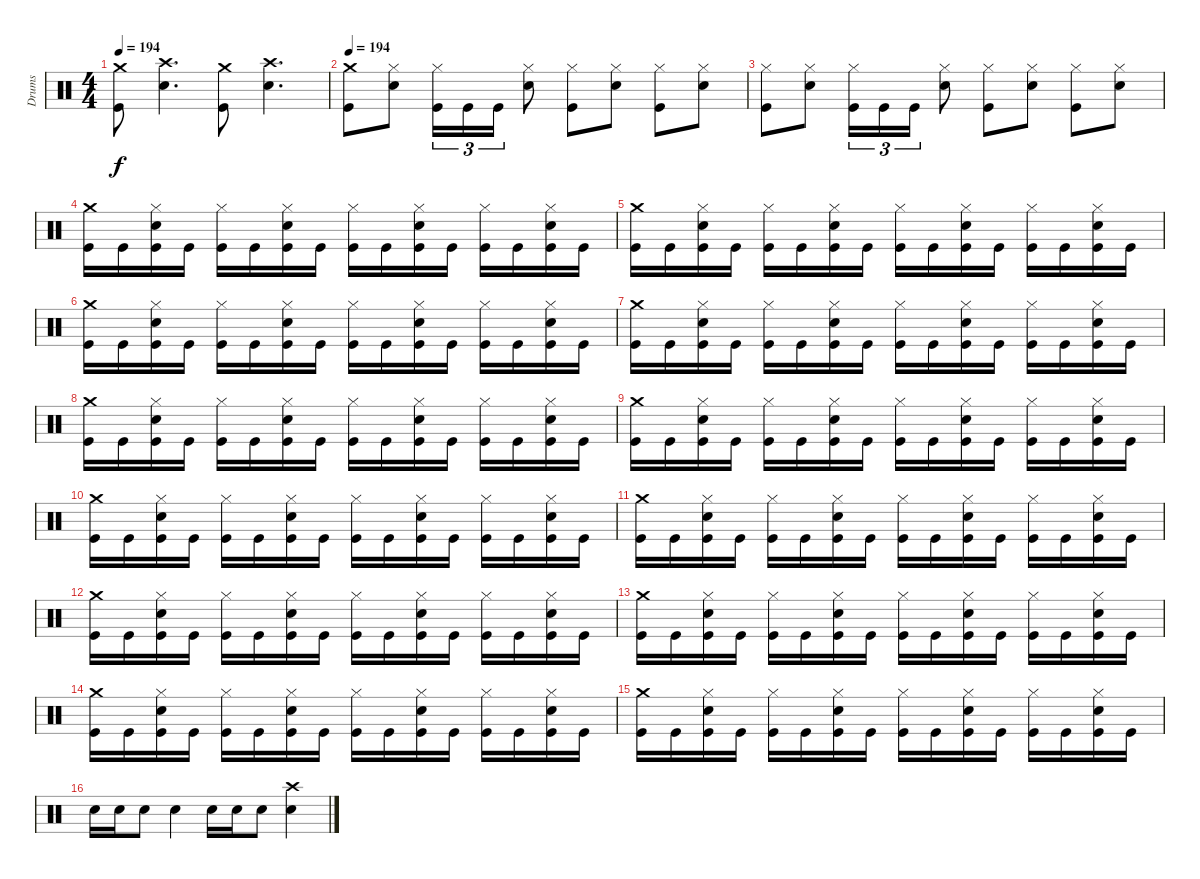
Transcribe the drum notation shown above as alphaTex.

\track ("Drums" "Drums") {instrument percussion}
\staff {score}
\articulation defaults
\ts (4 4)
\tempo 194
\clef neutral
\ks c
("Crash medium (hit)" "Kick (hit)").8{dy f} ("Crash high (hit)" "Snare (hit) 2").4{d} ("Crash medium (hit)" "Kick (hit)").8 ("Crash high (hit)" "Snare (hit) 2").4{d} |
\tempo 194
("Crash medium (hit)" "Kick (hit)").8 ("Hi-Hat (closed)" "Snare (hit) 2").8 ("Hi-Hat (closed)" "Kick (hit)").16{tu (3 2)} "Kick (hit)".16{tu (3 2)} "Kick (hit)".16{tu (3 2)} ("Hi-Hat (closed)" "Snare (hit) 2").8 ("Hi-Hat (closed)" "Kick (hit)").8 ("Hi-Hat (closed)" "Snare (hit) 2").8 ("Hi-Hat (closed)" "Kick (hit)").8 ("Hi-Hat (closed)" "Snare (hit) 2").8 |
("Hi-Hat (closed)" "Kick (hit)").8 ("Hi-Hat (closed)" "Snare (hit) 2").8 ("Hi-Hat (closed)" "Kick (hit)").16{tu (3 2)} "Kick (hit)".16{tu (3 2)} "Kick (hit)".16{tu (3 2)} ("Hi-Hat (closed)" "Snare (hit) 2").8 ("Hi-Hat (closed)" "Kick (hit)").8 ("Hi-Hat (closed)" "Snare (hit) 2").8 ("Hi-Hat (closed)" "Kick (hit)").8 ("Hi-Hat (closed)" "Snare (hit) 2").8 |
("Crash medium (hit)" "Kick (hit)").16 "Kick (hit)".16 ("Hi-Hat (closed)" "Snare (hit) 2" "Kick (hit)").16 "Kick (hit)".16 ("Hi-Hat (closed)" "Kick (hit)").16 "Kick (hit)".16 ("Hi-Hat (closed)" "Snare (hit) 2" "Kick (hit)").16 "Kick (hit)".16 ("Hi-Hat (closed)" "Kick (hit)").16 "Kick (hit)".16 ("Hi-Hat (closed)" "Snare (hit) 2" "Kick (hit)").16 "Kick (hit)".16 ("Hi-Hat (closed)" "Kick (hit)").16 "Kick (hit)".16 ("Hi-Hat (closed)" "Snare (hit) 2" "Kick (hit)").16 "Kick (hit)".16 |
("Crash medium (hit)" "Kick (hit)").16 "Kick (hit)".16 ("Hi-Hat (closed)" "Snare (hit) 2" "Kick (hit)").16 "Kick (hit)".16 ("Hi-Hat (closed)" "Kick (hit)").16 "Kick (hit)".16 ("Hi-Hat (closed)" "Snare (hit) 2" "Kick (hit)").16 "Kick (hit)".16 ("Hi-Hat (closed)" "Kick (hit)").16 "Kick (hit)".16 ("Hi-Hat (closed)" "Snare (hit) 2" "Kick (hit)").16 "Kick (hit)".16 ("Hi-Hat (closed)" "Kick (hit)").16 "Kick (hit)".16 ("Hi-Hat (closed)" "Snare (hit) 2" "Kick (hit)").16 "Kick (hit)".16 |
("Crash medium (hit)" "Kick (hit)").16 "Kick (hit)".16 ("Hi-Hat (closed)" "Snare (hit) 2" "Kick (hit)").16 "Kick (hit)".16 ("Hi-Hat (closed)" "Kick (hit)").16 "Kick (hit)".16 ("Hi-Hat (closed)" "Snare (hit) 2" "Kick (hit)").16 "Kick (hit)".16 ("Hi-Hat (closed)" "Kick (hit)").16 "Kick (hit)".16 ("Hi-Hat (closed)" "Snare (hit) 2" "Kick (hit)").16 "Kick (hit)".16 ("Hi-Hat (closed)" "Kick (hit)").16 "Kick (hit)".16 ("Hi-Hat (closed)" "Snare (hit) 2" "Kick (hit)").16 "Kick (hit)".16 |
("Crash medium (hit)" "Kick (hit)").16 "Kick (hit)".16 ("Hi-Hat (closed)" "Snare (hit) 2" "Kick (hit)").16 "Kick (hit)".16 ("Hi-Hat (closed)" "Kick (hit)").16 "Kick (hit)".16 ("Hi-Hat (closed)" "Snare (hit) 2" "Kick (hit)").16 "Kick (hit)".16 ("Hi-Hat (closed)" "Kick (hit)").16 "Kick (hit)".16 ("Hi-Hat (closed)" "Snare (hit) 2" "Kick (hit)").16 "Kick (hit)".16 ("Hi-Hat (closed)" "Kick (hit)").16 "Kick (hit)".16 ("Hi-Hat (closed)" "Snare (hit) 2" "Kick (hit)").16 "Kick (hit)".16 |
("Crash medium (hit)" "Kick (hit)").16 "Kick (hit)".16 ("Hi-Hat (closed)" "Snare (hit) 2" "Kick (hit)").16 "Kick (hit)".16 ("Hi-Hat (closed)" "Kick (hit)").16 "Kick (hit)".16 ("Hi-Hat (closed)" "Snare (hit) 2" "Kick (hit)").16 "Kick (hit)".16 ("Hi-Hat (closed)" "Kick (hit)").16 "Kick (hit)".16 ("Hi-Hat (closed)" "Snare (hit) 2" "Kick (hit)").16 "Kick (hit)".16 ("Hi-Hat (closed)" "Kick (hit)").16 "Kick (hit)".16 ("Hi-Hat (closed)" "Snare (hit) 2" "Kick (hit)").16 "Kick (hit)".16 |
("Crash medium (hit)" "Kick (hit)").16 "Kick (hit)".16 ("Hi-Hat (closed)" "Snare (hit) 2" "Kick (hit)").16 "Kick (hit)".16 ("Hi-Hat (closed)" "Kick (hit)").16 "Kick (hit)".16 ("Hi-Hat (closed)" "Snare (hit) 2" "Kick (hit)").16 "Kick (hit)".16 ("Hi-Hat (closed)" "Kick (hit)").16 "Kick (hit)".16 ("Hi-Hat (closed)" "Snare (hit) 2" "Kick (hit)").16 "Kick (hit)".16 ("Hi-Hat (closed)" "Kick (hit)").16 "Kick (hit)".16 ("Hi-Hat (closed)" "Snare (hit) 2" "Kick (hit)").16 "Kick (hit)".16 |
("Crash medium (hit)" "Kick (hit)").16 "Kick (hit)".16 ("Hi-Hat (closed)" "Snare (hit) 2" "Kick (hit)").16 "Kick (hit)".16 ("Hi-Hat (closed)" "Kick (hit)").16 "Kick (hit)".16 ("Hi-Hat (closed)" "Snare (hit) 2" "Kick (hit)").16 "Kick (hit)".16 ("Hi-Hat (closed)" "Kick (hit)").16 "Kick (hit)".16 ("Hi-Hat (closed)" "Snare (hit) 2" "Kick (hit)").16 "Kick (hit)".16 ("Hi-Hat (closed)" "Kick (hit)").16 "Kick (hit)".16 ("Hi-Hat (closed)" "Snare (hit) 2" "Kick (hit)").16 "Kick (hit)".16 |
("Crash medium (hit)" "Kick (hit)").16 "Kick (hit)".16 ("Hi-Hat (closed)" "Snare (hit) 2" "Kick (hit)").16 "Kick (hit)".16 ("Hi-Hat (closed)" "Kick (hit)").16 "Kick (hit)".16 ("Hi-Hat (closed)" "Snare (hit) 2" "Kick (hit)").16 "Kick (hit)".16 ("Hi-Hat (closed)" "Kick (hit)").16 "Kick (hit)".16 ("Hi-Hat (closed)" "Snare (hit) 2" "Kick (hit)").16 "Kick (hit)".16 ("Hi-Hat (closed)" "Kick (hit)").16 "Kick (hit)".16 ("Hi-Hat (closed)" "Snare (hit) 2" "Kick (hit)").16 "Kick (hit)".16 |
("Crash medium (hit)" "Kick (hit)").16 "Kick (hit)".16 ("Hi-Hat (closed)" "Snare (hit) 2" "Kick (hit)").16 "Kick (hit)".16 ("Hi-Hat (closed)" "Kick (hit)").16 "Kick (hit)".16 ("Hi-Hat (closed)" "Snare (hit) 2" "Kick (hit)").16 "Kick (hit)".16 ("Hi-Hat (closed)" "Kick (hit)").16 "Kick (hit)".16 ("Hi-Hat (closed)" "Snare (hit) 2" "Kick (hit)").16 "Kick (hit)".16 ("Hi-Hat (closed)" "Kick (hit)").16 "Kick (hit)".16 ("Hi-Hat (closed)" "Snare (hit) 2" "Kick (hit)").16 "Kick (hit)".16 |
("Crash medium (hit)" "Kick (hit)").16 "Kick (hit)".16 ("Hi-Hat (closed)" "Snare (hit) 2" "Kick (hit)").16 "Kick (hit)".16 ("Hi-Hat (closed)" "Kick (hit)").16 "Kick (hit)".16 ("Hi-Hat (closed)" "Snare (hit) 2" "Kick (hit)").16 "Kick (hit)".16 ("Hi-Hat (closed)" "Kick (hit)").16 "Kick (hit)".16 ("Hi-Hat (closed)" "Snare (hit) 2" "Kick (hit)").16 "Kick (hit)".16 ("Hi-Hat (closed)" "Kick (hit)").16 "Kick (hit)".16 ("Hi-Hat (closed)" "Snare (hit) 2" "Kick (hit)").16 "Kick (hit)".16 |
("Crash medium (hit)" "Kick (hit)").16 "Kick (hit)".16 ("Hi-Hat (closed)" "Snare (hit) 2" "Kick (hit)").16 "Kick (hit)".16 ("Hi-Hat (closed)" "Kick (hit)").16 "Kick (hit)".16 ("Hi-Hat (closed)" "Snare (hit) 2" "Kick (hit)").16 "Kick (hit)".16 ("Hi-Hat (closed)" "Kick (hit)").16 "Kick (hit)".16 ("Hi-Hat (closed)" "Snare (hit) 2" "Kick (hit)").16 "Kick (hit)".16 ("Hi-Hat (closed)" "Kick (hit)").16 "Kick (hit)".16 ("Hi-Hat (closed)" "Snare (hit) 2" "Kick (hit)").16 "Kick (hit)".16 |
("Crash medium (hit)" "Kick (hit)").16 "Kick (hit)".16 ("Hi-Hat (closed)" "Snare (hit) 2" "Kick (hit)").16 "Kick (hit)".16 ("Hi-Hat (closed)" "Kick (hit)").16 "Kick (hit)".16 ("Hi-Hat (closed)" "Snare (hit) 2" "Kick (hit)").16 "Kick (hit)".16 ("Hi-Hat (closed)" "Kick (hit)").16 "Kick (hit)".16 ("Hi-Hat (closed)" "Snare (hit) 2" "Kick (hit)").16 "Kick (hit)".16 ("Hi-Hat (closed)" "Kick (hit)").16 "Kick (hit)".16 ("Hi-Hat (closed)" "Snare (hit) 2" "Kick (hit)").16 "Kick (hit)".16 |
"Snare (hit) 2".16 "Snare (hit) 2".16 "Snare (hit) 2".8 "Snare (hit) 2".4 "Snare (hit) 2".16 "Snare (hit) 2".16 "Snare (hit) 2".8 ("Crash high (hit)" "Snare (hit) 2").4
